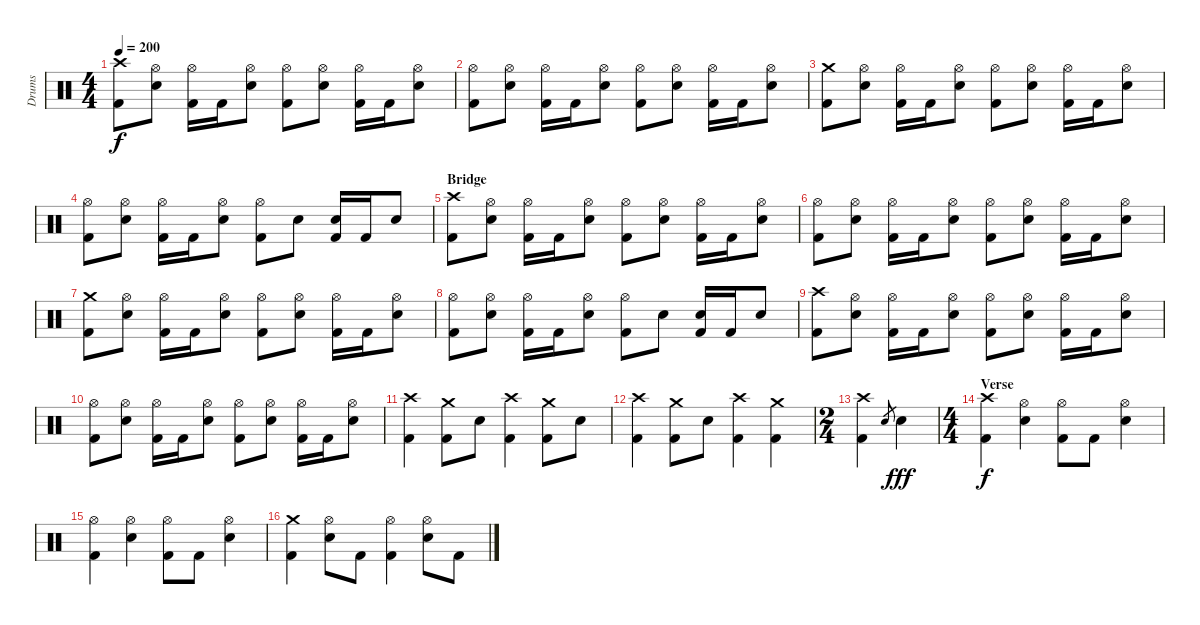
\track ("Drums" "Drums") {instrument percussion}
\staff {score}
\articulation defaults
\ts (4 4)
\tempo 200
\clef neutral
\ks c
("Crash high (hit)" "Kick (hit) 2").8{dy f} ("Hi-Hat (open)" "Electric Snare (hit)").8 ("Hi-Hat (open)" "Kick (hit) 2").16 "Kick (hit) 2".16 ("Hi-Hat (open)" "Electric Snare (hit)").8 ("Hi-Hat (open)" "Kick (hit) 2").8 ("Hi-Hat (open)" "Electric Snare (hit)").8 ("Hi-Hat (open)" "Kick (hit) 2").16 "Kick (hit) 2".16 ("Hi-Hat (open)" "Electric Snare (hit)").8 |
("Hi-Hat (open)" "Kick (hit) 2").8 ("Hi-Hat (open)" "Electric Snare (hit)").8 ("Hi-Hat (open)" "Kick (hit) 2").16 "Kick (hit) 2".16 ("Hi-Hat (open)" "Electric Snare (hit)").8 ("Hi-Hat (open)" "Kick (hit) 2").8 ("Hi-Hat (open)" "Electric Snare (hit)").8 ("Hi-Hat (open)" "Kick (hit) 2").16 "Kick (hit) 2".16 ("Hi-Hat (open)" "Electric Snare (hit)").8 |
("Crash medium (hit)" "Kick (hit) 2").8 ("Hi-Hat (open)" "Electric Snare (hit)").8 ("Hi-Hat (open)" "Kick (hit) 2").16 "Kick (hit) 2".16 ("Hi-Hat (open)" "Electric Snare (hit)").8 ("Hi-Hat (open)" "Kick (hit) 2").8 ("Hi-Hat (open)" "Electric Snare (hit)").8 ("Hi-Hat (open)" "Kick (hit) 2").16 "Kick (hit) 2".16 ("Hi-Hat (open)" "Electric Snare (hit)").8 |
("Hi-Hat (open)" "Kick (hit) 2").8 ("Hi-Hat (open)" "Electric Snare (hit)").8 ("Hi-Hat (open)" "Kick (hit) 2").16 "Kick (hit) 2".16 ("Hi-Hat (open)" "Electric Snare (hit)").8 ("Hi-Hat (open)" "Kick (hit) 2").8 "Electric Snare (hit)".8 ("Electric Snare (hit)" "Kick (hit) 2").16 "Kick (hit) 2".16 "Electric Snare (hit)".8 |
\section ("" "Bridge")
("Crash high (hit)" "Kick (hit) 2").8 ("Hi-Hat (open)" "Electric Snare (hit)").8 ("Hi-Hat (open)" "Kick (hit) 2").16 "Kick (hit) 2".16 ("Hi-Hat (open)" "Electric Snare (hit)").8 ("Hi-Hat (open)" "Kick (hit) 2").8 ("Hi-Hat (open)" "Electric Snare (hit)").8 ("Hi-Hat (open)" "Kick (hit) 2").16 "Kick (hit) 2".16 ("Hi-Hat (open)" "Electric Snare (hit)").8 |
("Hi-Hat (open)" "Kick (hit) 2").8 ("Hi-Hat (open)" "Electric Snare (hit)").8 ("Hi-Hat (open)" "Kick (hit) 2").16 "Kick (hit) 2".16 ("Hi-Hat (open)" "Electric Snare (hit)").8 ("Hi-Hat (open)" "Kick (hit) 2").8 ("Hi-Hat (open)" "Electric Snare (hit)").8 ("Hi-Hat (open)" "Kick (hit) 2").16 "Kick (hit) 2".16 ("Hi-Hat (open)" "Electric Snare (hit)").8 |
("Crash medium (hit)" "Kick (hit) 2").8 ("Hi-Hat (open)" "Electric Snare (hit)").8 ("Hi-Hat (open)" "Kick (hit) 2").16 "Kick (hit) 2".16 ("Hi-Hat (open)" "Electric Snare (hit)").8 ("Hi-Hat (open)" "Kick (hit) 2").8 ("Hi-Hat (open)" "Electric Snare (hit)").8 ("Hi-Hat (open)" "Kick (hit) 2").16 "Kick (hit) 2".16 ("Hi-Hat (open)" "Electric Snare (hit)").8 |
("Hi-Hat (open)" "Kick (hit) 2").8 ("Hi-Hat (open)" "Electric Snare (hit)").8 ("Hi-Hat (open)" "Kick (hit) 2").16 "Kick (hit) 2".16 ("Hi-Hat (open)" "Electric Snare (hit)").8 ("Hi-Hat (open)" "Kick (hit) 2").8 "Electric Snare (hit)".8 ("Electric Snare (hit)" "Kick (hit) 2").16 "Kick (hit) 2".16 "Electric Snare (hit)".8 |
("Crash high (hit)" "Kick (hit) 2").8 ("Hi-Hat (open)" "Electric Snare (hit)").8 ("Hi-Hat (open)" "Kick (hit) 2").16 "Kick (hit) 2".16 ("Hi-Hat (open)" "Electric Snare (hit)").8 ("Hi-Hat (open)" "Kick (hit) 2").8 ("Hi-Hat (open)" "Electric Snare (hit)").8 ("Hi-Hat (open)" "Kick (hit) 2").16 "Kick (hit) 2".16 ("Hi-Hat (open)" "Electric Snare (hit)").8 |
("Hi-Hat (open)" "Kick (hit) 2").8 ("Hi-Hat (open)" "Electric Snare (hit)").8 ("Hi-Hat (open)" "Kick (hit) 2").16 "Kick (hit) 2".16 ("Hi-Hat (open)" "Electric Snare (hit)").8 ("Hi-Hat (open)" "Kick (hit) 2").8 ("Hi-Hat (open)" "Electric Snare (hit)").8 ("Hi-Hat (open)" "Kick (hit) 2").16 "Kick (hit) 2".16 ("Hi-Hat (open)" "Electric Snare (hit)").8 |
("Crash high (hit)" "Kick (hit) 2").4 ("Crash medium (hit)" "Kick (hit) 2").8 "Electric Snare (hit)".8 ("Crash high (hit)" "Kick (hit) 2").4 ("Crash medium (hit)" "Kick (hit) 2").8 "Electric Snare (hit)".8 |
("Crash high (hit)" "Kick (hit) 2").4 ("Crash medium (hit)" "Kick (hit) 2").8 "Electric Snare (hit)".8 ("Crash high (hit)" "Kick (hit) 2").4 ("Crash medium (hit)" "Kick (hit) 2").4 |
\ts (2 4)
("Crash high (hit)" "Kick (hit) 2").4 "Electric Snare (hit)".8{gr} "Electric Snare (hit)".4{dy fff} |
\ts (4 4)
\section ("" "Verse")
("Crash high (hit)" "Kick (hit) 2").4{dy f} ("Hi-Hat (open)" "Electric Snare (hit)").4 ("Hi-Hat (open)" "Kick (hit) 2").8 "Kick (hit) 2".8 ("Hi-Hat (open)" "Electric Snare (hit)").4 |
("Hi-Hat (open)" "Kick (hit) 2").4 ("Hi-Hat (open)" "Electric Snare (hit)").4 ("Hi-Hat (open)" "Kick (hit) 2").8 "Kick (hit) 2".8 ("Hi-Hat (open)" "Electric Snare (hit)").4 |
("Crash medium (hit)" "Kick (hit) 2").4 ("Hi-Hat (open)" "Electric Snare (hit)").8 "Kick (hit) 2".8 ("Hi-Hat (open)" "Kick (hit) 2").4 ("Hi-Hat (open)" "Electric Snare (hit)").8 "Kick (hit) 2".8
